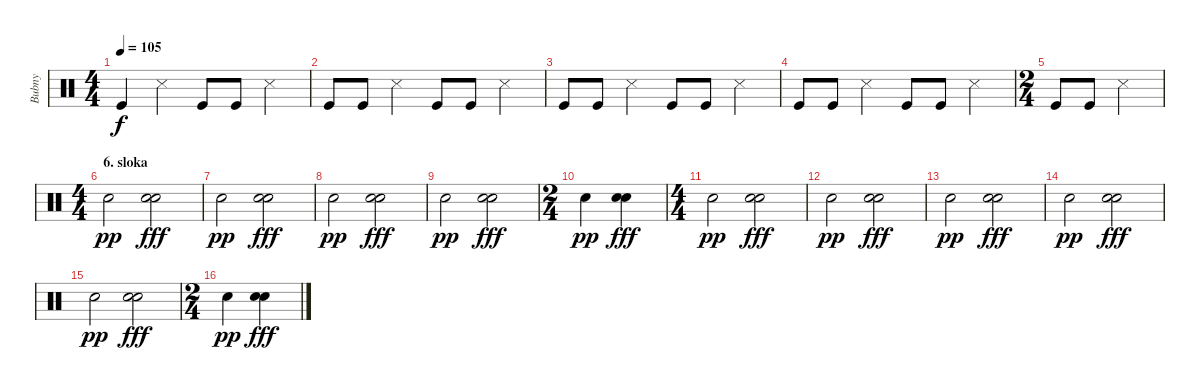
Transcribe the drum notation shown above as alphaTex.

\track ("Bubny" "Bubny") {instrument percussion}
\staff {score}
\articulation defaults
\ts (4 4)
\tempo 105
\clef neutral
\ks c "Kick (hit)".4{dy f} "Snare (side stick) 3".4 "Kick (hit)".8 "Kick (hit)".8 "Snare (side stick) 3".4
|
"Kick (hit)".8 "Kick (hit)".8 "Snare (side stick) 3".4 "Kick (hit)".8 "Kick (hit)".8 "Snare (side stick) 3".4 |
"Kick (hit)".8 "Kick (hit)".8 "Snare (side stick) 3".4 "Kick (hit)".8 "Kick (hit)".8 "Snare (side stick) 3".4 |
"Kick (hit)".8 "Kick (hit)".8 "Snare (side stick) 3".4 "Kick (hit)".8 "Kick (hit)".8 "Snare (side stick) 3".4 |
\ts (2 4)
"Kick (hit)".8 "Kick (hit)".8 "Snare (side stick) 3".4 |
\ts (4 4)
\section ("" "6. sloka")
"Electric Snare (hit)"{tr (40 64)}.2{dy pp} ("Snare (hit) 2" "Electric Snare (hit)").2{dy fff} |
"Electric Snare (hit)"{tr (40 64)}.2{dy pp} ("Snare (hit) 2" "Electric Snare (hit)").2{dy fff} |
"Electric Snare (hit)"{tr (40 64)}.2{dy pp} ("Snare (hit) 2" "Electric Snare (hit)").2{dy fff} |
"Electric Snare (hit)"{tr (40 64)}.2{dy pp} ("Snare (hit) 2" "Electric Snare (hit)").2{dy fff} |
\ts (2 4)
"Electric Snare (hit)"{tr (40 64)}.4{dy pp} ("Snare (hit) 2" "Electric Snare (hit)").4{dy fff} |
\ts (4 4)
"Electric Snare (hit)"{tr (40 64)}.2{dy pp} ("Snare (hit) 2" "Electric Snare (hit)").2{dy fff} |
"Electric Snare (hit)"{tr (40 64)}.2{dy pp} ("Snare (hit) 2" "Electric Snare (hit)").2{dy fff} |
"Electric Snare (hit)"{tr (40 64)}.2{dy pp} ("Snare (hit) 2" "Electric Snare (hit)").2{dy fff} |
"Electric Snare (hit)"{tr (40 64)}.2{dy pp} ("Snare (hit) 2" "Electric Snare (hit)").2{dy fff} |
"Electric Snare (hit)"{tr (40 64)}.2{dy pp} ("Snare (hit) 2" "Electric Snare (hit)").2{dy fff} |
\ts (2 4)
"Electric Snare (hit)"{tr (40 64)}.4{dy pp} ("Snare (hit) 2" "Electric Snare (hit)").4{dy fff}
